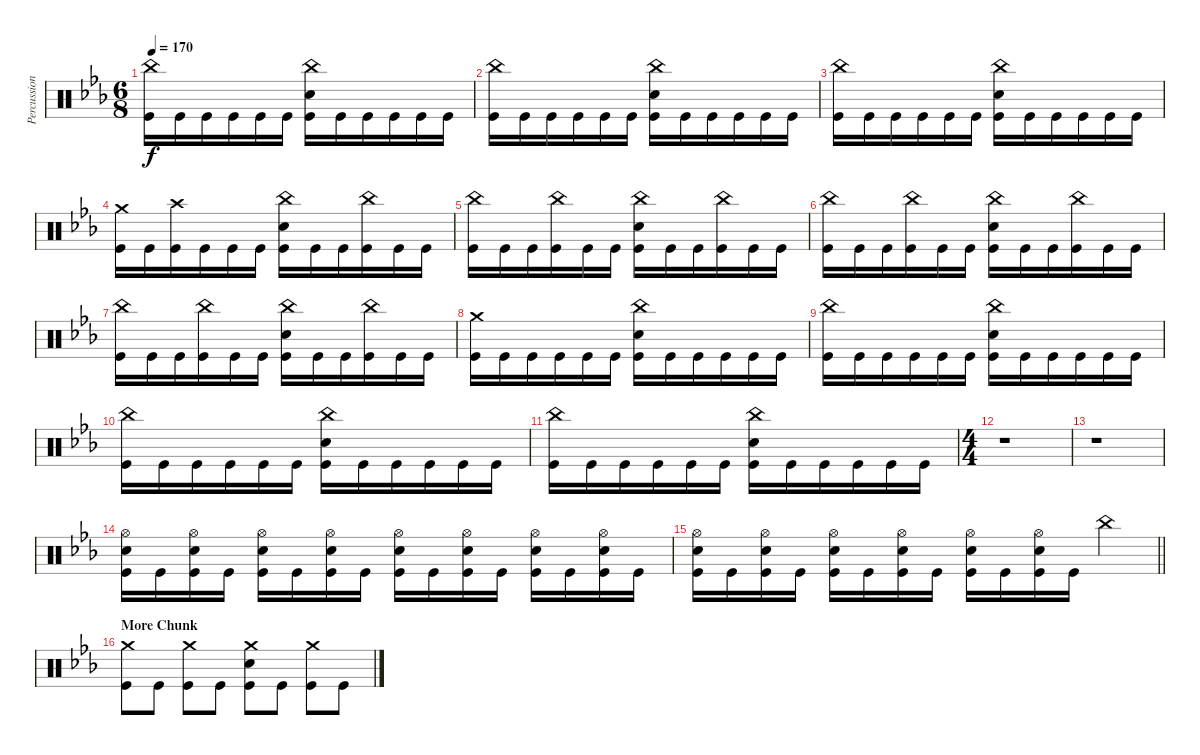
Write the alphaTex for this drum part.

\track ("Percussion" "Percussion") {instrument percussion}
\staff {score}
\articulation defaults
\ts (6 8)
\tempo 170
\clef neutral
\ks eb
("China (hit)" "Kick (hit)").16{dy f} "Kick (hit)".16 "Kick (hit)".16 "Kick (hit)".16 "Kick (hit)".16 "Kick (hit)".16 ("China (hit)" "Electric Snare (hit)" "Kick (hit)").16 "Kick (hit)".16 "Kick (hit)".16 "Kick (hit)".16 "Kick (hit)".16 "Kick (hit)".16 |
("China (hit)" "Kick (hit)").16 "Kick (hit)".16 "Kick (hit)".16 "Kick (hit)".16 "Kick (hit)".16 "Kick (hit)".16 ("China (hit)" "Electric Snare (hit)" "Kick (hit)").16 "Kick (hit)".16 "Kick (hit)".16 "Kick (hit)".16 "Kick (hit)".16 "Kick (hit)".16 |
("China (hit)" "Kick (hit)").16 "Kick (hit)".16 "Kick (hit)".16 "Kick (hit)".16 "Kick (hit)".16 "Kick (hit)".16 ("China (hit)" "Electric Snare (hit)" "Kick (hit)").16 "Kick (hit)".16 "Kick (hit)".16 "Kick (hit)".16 "Kick (hit)".16 "Kick (hit)".16 |
("Crash medium (hit)" "Kick (hit)").16 "Kick (hit)".16 ("Crash high (hit)" "Kick (hit)").16 "Kick (hit)".16 "Kick (hit)".16 "Kick (hit)".16 ("China (hit)" "Electric Snare (hit)" "Kick (hit)").16 "Kick (hit)".16 "Kick (hit)".16 ("China (hit)" "Kick (hit)").16 "Kick (hit)".16 "Kick (hit)".16 |
("China (hit)" "Kick (hit)").16 "Kick (hit)".16 "Kick (hit)".16 ("China (hit)" "Kick (hit)").16 "Kick (hit)".16 "Kick (hit)".16 ("China (hit)" "Electric Snare (hit)" "Kick (hit)").16 "Kick (hit)".16 "Kick (hit)".16 ("China (hit)" "Kick (hit)").16 "Kick (hit)".16 "Kick (hit)".16 |
("China (hit)" "Kick (hit)").16 "Kick (hit)".16 "Kick (hit)".16 ("China (hit)" "Kick (hit)").16 "Kick (hit)".16 "Kick (hit)".16 ("China (hit)" "Electric Snare (hit)" "Kick (hit)").16 "Kick (hit)".16 "Kick (hit)".16 ("China (hit)" "Kick (hit)").16 "Kick (hit)".16 "Kick (hit)".16 |
("China (hit)" "Kick (hit)").16 "Kick (hit)".16 "Kick (hit)".16 ("China (hit)" "Kick (hit)").16 "Kick (hit)".16 "Kick (hit)".16 ("China (hit)" "Electric Snare (hit)" "Kick (hit)").16 "Kick (hit)".16 "Kick (hit)".16 ("China (hit)" "Kick (hit)").16 "Kick (hit)".16 "Kick (hit)".16 |
("Crash medium (hit)" "Kick (hit)").16 "Kick (hit)".16 "Kick (hit)".16 "Kick (hit)".16 "Kick (hit)".16 "Kick (hit)".16 ("China (hit)" "Electric Snare (hit)" "Kick (hit)").16 "Kick (hit)".16 "Kick (hit)".16 "Kick (hit)".16 "Kick (hit)".16 "Kick (hit)".16 |
("China (hit)" "Kick (hit)").16 "Kick (hit)".16 "Kick (hit)".16 "Kick (hit)".16 "Kick (hit)".16 "Kick (hit)".16 ("China (hit)" "Electric Snare (hit)" "Kick (hit)").16 "Kick (hit)".16 "Kick (hit)".16 "Kick (hit)".16 "Kick (hit)".16 "Kick (hit)".16 |
("China (hit)" "Kick (hit)").16 "Kick (hit)".16 "Kick (hit)".16 "Kick (hit)".16 "Kick (hit)".16 "Kick (hit)".16 ("China (hit)" "Electric Snare (hit)" "Kick (hit)").16 "Kick (hit)".16 "Kick (hit)".16 "Kick (hit)".16 "Kick (hit)".16 "Kick (hit)".16 |
("China (hit)" "Kick (hit)").16 "Kick (hit)".16 "Kick (hit)".16 "Kick (hit)".16 "Kick (hit)".16 "Kick (hit)".16 ("China (hit)" "Electric Snare (hit)" "Kick (hit)").16 "Kick (hit)".16 "Kick (hit)".16 "Kick (hit)".16 "Kick (hit)".16 "Kick (hit)".16 |
\ts (4 4)
r.1 |
r.1 |
("Hi-Hat (open)" "Electric Snare (hit)" "Kick (hit)").16 "Kick (hit)".16 ("Hi-Hat (open)" "Electric Snare (hit)" "Kick (hit)").16 "Kick (hit)".16 ("Hi-Hat (open)" "Electric Snare (hit)" "Kick (hit)").16 "Kick (hit)".16 ("Hi-Hat (open)" "Electric Snare (hit)" "Kick (hit)").16 "Kick (hit)".16 ("Hi-Hat (open)" "Electric Snare (hit)" "Kick (hit)").16 "Kick (hit)".16 ("Hi-Hat (open)" "Electric Snare (hit)" "Kick (hit)").16 "Kick (hit)".16 ("Hi-Hat (open)" "Electric Snare (hit)" "Kick (hit)").16 "Kick (hit)".16 ("Hi-Hat (open)" "Electric Snare (hit)" "Kick (hit)").16 "Kick (hit)".16 |
\barLineRight lightlight
("Hi-Hat (open)" "Electric Snare (hit)" "Kick (hit)").16 "Kick (hit)".16 ("Hi-Hat (open)" "Electric Snare (hit)" "Kick (hit)").16 "Kick (hit)".16 ("Hi-Hat (open)" "Electric Snare (hit)" "Kick (hit)").16 "Kick (hit)".16 ("Hi-Hat (open)" "Electric Snare (hit)" "Kick (hit)").16 "Kick (hit)".16 ("Hi-Hat (open)" "Electric Snare (hit)" "Kick (hit)").16 "Kick (hit)".16 ("Hi-Hat (open)" "Electric Snare (hit)" "Kick (hit)").16 "Kick (hit)".16 "China (hit)".4 |
\section ("" "More Chunk")
("Crash medium (hit)" "Kick (hit)").8 "Kick (hit)".8 ("Crash medium (hit)" "Kick (hit)").8 "Kick (hit)".8 ("Crash medium (hit)" "Electric Snare (hit)" "Kick (hit)").8 "Kick (hit)".8 ("Crash medium (hit)" "Kick (hit)").8 "Kick (hit)".8
